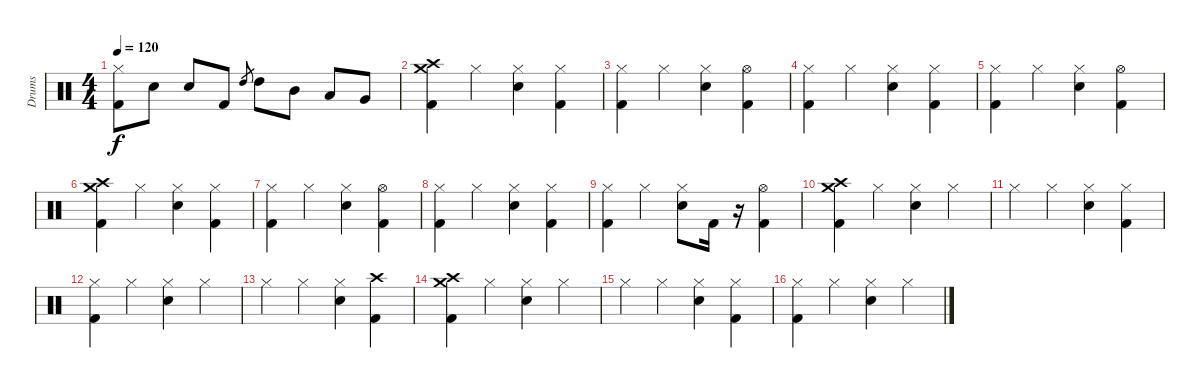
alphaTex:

\track ("Drums" "Drums") {instrument percussion}
\staff {score}
\articulation defaults
\ts (4 4)
\tempo 120
\clef neutral
\ks c
("Kick (hit) 2" "Hi-Hat (closed)").8{dy f} "Electric Snare (hit)".8 "Electric Snare (hit)".8 "Kick (hit) 2".8 "High Tom (hit)".8{gr} "High Tom (hit)".8 "Mid Tom (hit)".8 "Low Tom (hit)".8 "Very Low Tom (hit)".8 |
("Crash medium (hit)" "Crash high (hit)" "Kick (hit) 2").4 "Hi-Hat (closed)".4 ("Electric Snare (hit)" "Hi-Hat (closed)").4 ("Kick (hit) 2" "Hi-Hat (closed)").4 |
("Kick (hit) 2" "Hi-Hat (closed)").4 "Hi-Hat (closed)".4 ("Electric Snare (hit)" "Hi-Hat (closed)").4 ("Kick (hit) 2" "Hi-Hat (open)").4 |
("Kick (hit) 2" "Hi-Hat (closed)").4 "Hi-Hat (closed)".4 ("Electric Snare (hit)" "Hi-Hat (closed)").4 ("Kick (hit) 2" "Hi-Hat (closed)").4 |
("Kick (hit) 2" "Hi-Hat (closed)").4 "Hi-Hat (closed)".4 ("Electric Snare (hit)" "Hi-Hat (closed)").4 ("Kick (hit) 2" "Hi-Hat (open)").4 |
("Crash medium (hit)" "Crash high (hit)" "Kick (hit) 2").4 "Hi-Hat (closed)".4 ("Electric Snare (hit)" "Hi-Hat (closed)").4 ("Kick (hit) 2" "Hi-Hat (closed)").4 |
("Kick (hit) 2" "Hi-Hat (closed)").4 "Hi-Hat (closed)".4 ("Electric Snare (hit)" "Hi-Hat (closed)").4 ("Kick (hit) 2" "Hi-Hat (open)").4 |
("Kick (hit) 2" "Hi-Hat (closed)").4 "Hi-Hat (closed)".4 ("Electric Snare (hit)" "Hi-Hat (closed)").4 ("Kick (hit) 2" "Hi-Hat (closed)").4 |
("Kick (hit) 2" "Hi-Hat (closed)").4 "Hi-Hat (closed)".4 ("Electric Snare (hit)" "Hi-Hat (closed)").8 "Kick (hit) 2".16 r.16 ("Kick (hit) 2" "Hi-Hat (open)").4 |
("Crash medium (hit)" "Crash high (hit)" "Kick (hit) 2").4 "Hi-Hat (closed)".4 ("Electric Snare (hit)" "Hi-Hat (closed)").4 "Hi-Hat (closed)".4 |
"Hi-Hat (closed)".4 "Hi-Hat (closed)".4 ("Electric Snare (hit)" "Hi-Hat (closed)").4 ("Kick (hit) 2" "Hi-Hat (closed)").4 |
("Kick (hit) 2" "Hi-Hat (closed)").4 "Hi-Hat (closed)".4 ("Electric Snare (hit)" "Hi-Hat (closed)").4 "Hi-Hat (closed)".4 |
"Hi-Hat (closed)".4 "Hi-Hat (closed)".4 ("Electric Snare (hit)" "Hi-Hat (closed)").4 ("Kick (hit) 2" "Crash high (hit)").4 |
("Crash medium (hit)" "Crash high (hit)" "Kick (hit) 2").4 "Hi-Hat (closed)".4 ("Electric Snare (hit)" "Hi-Hat (closed)").4 "Hi-Hat (closed)".4 |
"Hi-Hat (closed)".4 "Hi-Hat (closed)".4 ("Electric Snare (hit)" "Hi-Hat (closed)").4 ("Kick (hit) 2" "Hi-Hat (closed)").4 |
("Kick (hit) 2" "Hi-Hat (closed)").4 "Hi-Hat (closed)".4 ("Electric Snare (hit)" "Hi-Hat (closed)").4 "Hi-Hat (closed)".4
